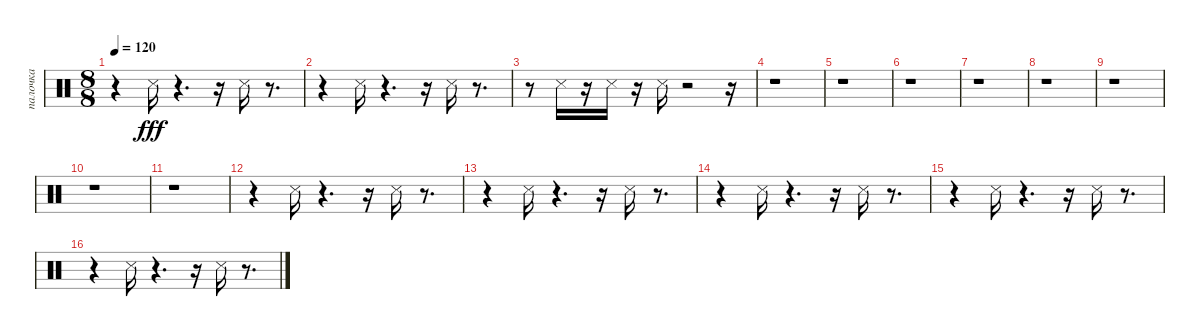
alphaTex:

\track ("палочка" "палочка") {instrument percussion}
\staff {score}
\articulation defaults
\ts (8 8)
\tempo 120
\clef neutral
\ks c
r.4{dy fff} "Snare (side stick) 3".16 r.4{d} r.16 "Snare (side stick) 3".16 r.8{d} |
r.4 "Snare (side stick) 3".16 r.4{d} r.16 "Snare (side stick) 3".16 r.8{d} |
r.8 "Snare (side stick) 3".16 r.16 "Snare (side stick) 3".16 r.16 "Snare (side stick) 3".16 r.2 r.16 |
r.1 |
r.1 |
r.1 |
r.1 |
r.1 |
r.1 |
r.1 |
r.1 |
r.4 "Snare (side stick) 3".16 r.4{d} r.16 "Snare (side stick) 3".16 r.8{d} |
r.4 "Snare (side stick) 3".16 r.4{d} r.16 "Snare (side stick) 3".16 r.8{d} |
r.4 "Snare (side stick) 3".16 r.4{d} r.16 "Snare (side stick) 3".16 r.8{d} |
r.4 "Snare (side stick) 3".16 r.4{d} r.16 "Snare (side stick) 3".16 r.8{d} |
r.4 "Snare (side stick) 3".16 r.4{d} r.16 "Snare (side stick) 3".16 r.8{d}
